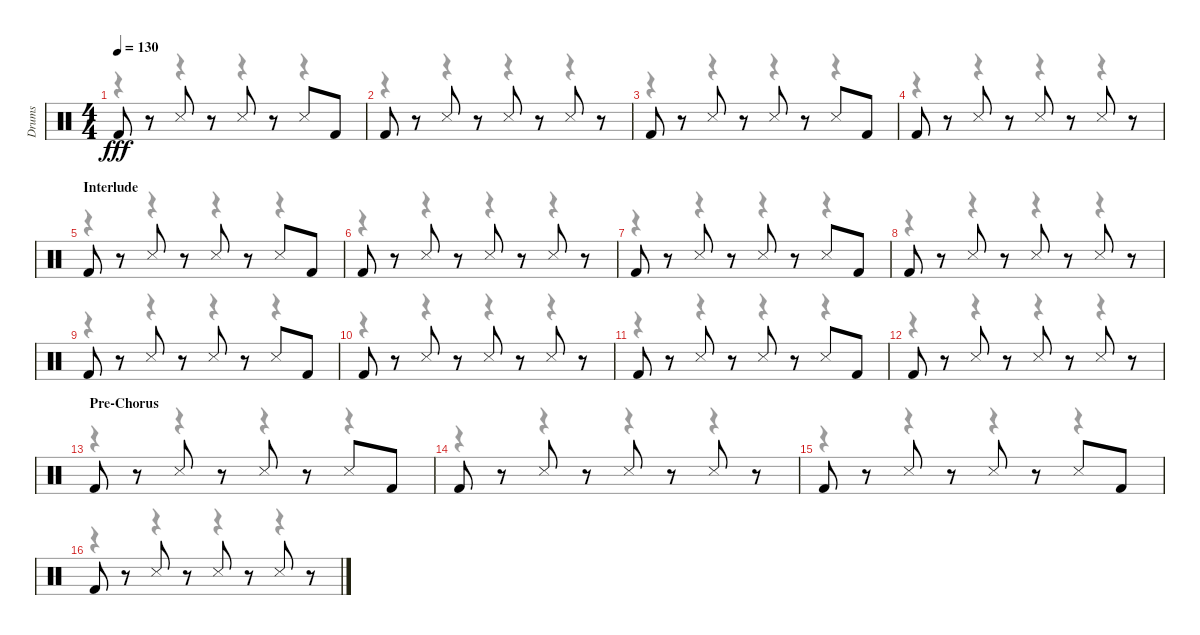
\track ("Drums" "Drums") {instrument percussion}
\staff {score}
\articulation defaults
\voice
\ts (4 4)
\tempo 130
\clef neutral
\ks c "Kick (hit) 2".8{dy fff}
r.8 "Snare (side stick) 3".8 r.8 "Snare (side stick) 3".8 r.8 "Snare (side stick) 3".8 "Kick (hit) 2".8 |
"Kick (hit) 2".8 r.8 "Snare (side stick) 3".8 r.8 "Snare (side stick) 3".8 r.8 "Snare (side stick) 3".8 r.8 |
"Kick (hit) 2".8 r.8 "Snare (side stick) 3".8 r.8 "Snare (side stick) 3".8 r.8 "Snare (side stick) 3".8 "Kick (hit) 2".8 |
"Kick (hit) 2".8 r.8 "Snare (side stick) 3".8 r.8 "Snare (side stick) 3".8 r.8 "Snare (side stick) 3".8 r.8 |
\section ("" "Interlude")
"Kick (hit) 2".8 r.8 "Snare (side stick) 3".8 r.8 "Snare (side stick) 3".8 r.8 "Snare (side stick) 3".8 "Kick (hit) 2".8 |
"Kick (hit) 2".8 r.8 "Snare (side stick) 3".8 r.8 "Snare (side stick) 3".8 r.8 "Snare (side stick) 3".8 r.8 |
"Kick (hit) 2".8 r.8 "Snare (side stick) 3".8 r.8 "Snare (side stick) 3".8 r.8 "Snare (side stick) 3".8 "Kick (hit) 2".8 |
"Kick (hit) 2".8 r.8 "Snare (side stick) 3".8 r.8 "Snare (side stick) 3".8 r.8 "Snare (side stick) 3".8 r.8 |
"Kick (hit) 2".8 r.8 "Snare (side stick) 3".8 r.8 "Snare (side stick) 3".8 r.8 "Snare (side stick) 3".8 "Kick (hit) 2".8 |
"Kick (hit) 2".8 r.8 "Snare (side stick) 3".8 r.8 "Snare (side stick) 3".8 r.8 "Snare (side stick) 3".8 r.8 |
"Kick (hit) 2".8 r.8 "Snare (side stick) 3".8 r.8 "Snare (side stick) 3".8 r.8 "Snare (side stick) 3".8 "Kick (hit) 2".8 |
"Kick (hit) 2".8 r.8 "Snare (side stick) 3".8 r.8 "Snare (side stick) 3".8 r.8 "Snare (side stick) 3".8 r.8 |
\section ("" "Pre-Chorus")
"Kick (hit) 2".8 r.8 "Snare (side stick) 3".8 r.8 "Snare (side stick) 3".8 r.8 "Snare (side stick) 3".8 "Kick (hit) 2".8 |
"Kick (hit) 2".8 r.8 "Snare (side stick) 3".8 r.8 "Snare (side stick) 3".8 r.8 "Snare (side stick) 3".8 r.8 |
"Kick (hit) 2".8 r.8 "Snare (side stick) 3".8 r.8 "Snare (side stick) 3".8 r.8 "Snare (side stick) 3".8 "Kick (hit) 2".8 |
"Kick (hit) 2".8 r.8 "Snare (side stick) 3".8 r.8 "Snare (side stick) 3".8 r.8 "Snare (side stick) 3".8 r.8
\voice
\clef neutral
\ottava regular
\simile none
\ks c
r.4{dy f} r.4 r.4 r.4 |
r.4 r.4 r.4 r.4 |
r.4 r.4 r.4 r.4 |
r.4 r.4 r.4 r.4 |
r.4 r.4 r.4 r.4 |
r.4 r.4 r.4 r.4 |
r.4 r.4 r.4 r.4 |
r.4 r.4 r.4 r.4 |
r.4 r.4 r.4 r.4 |
r.4 r.4 r.4 r.4 |
r.4 r.4 r.4 r.4 |
r.4 r.4 r.4 r.4 |
r.4 r.4 r.4 r.4 |
r.4 r.4 r.4 r.4 |
r.4 r.4 r.4 r.4 |
r.4 r.4 r.4 r.4
